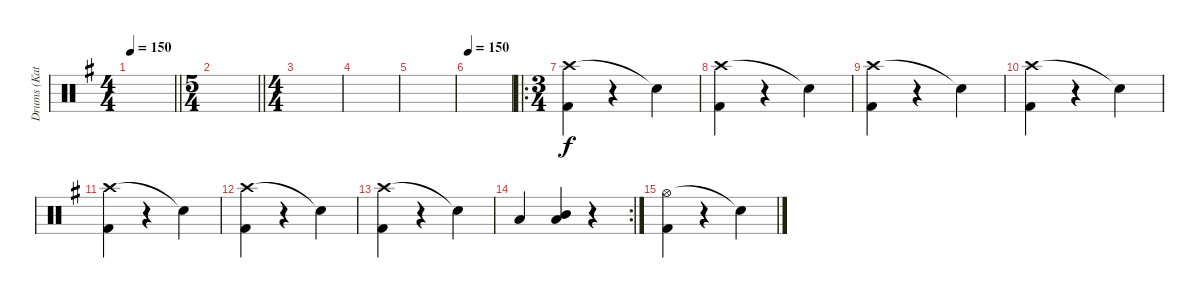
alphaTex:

\track ("Drums (Katsuji)" "Drums (Kat") {instrument percussion}
\staff {score}
\articulation defaults
\ts (4 4)
\tempo 150
\tempo 70
\tempo 150
\clef neutral
\barLineRight lightlight
\ks g
|
\ts (5 4)
\barLineRight lightlight
|
\ts (4 4)
|
|
|
\tempo 150
|
\ro
\ts (3 4)
("Crash high (hit)" "Kick (hit) 2").4 r.4 "Snare (hit)"{t}.4 |
("Crash high (hit)" "Kick (hit) 2").4 r.4 "Snare (hit)"{t}.4 |
("Crash high (hit)" "Kick (hit) 2").4 r.4 "Snare (hit)"{t}.4 |
("Crash high (hit)" "Kick (hit) 2").4 r.4 "Snare (hit)"{t}.4 |
("Crash high (hit)" "Kick (hit) 2").4 r.4 "Snare (hit)"{t}.4 |
("Crash high (hit)" "Kick (hit) 2").4 r.4 "Snare (hit)"{t}.4 |
("Crash high (hit)" "Kick (hit) 2").4 r.4 "Snare (hit)"{t}.4 |
\rc 2 "Low Tom (hit)".4
("Mid Tom (hit)" "Low Tom (hit)").4 r.4 |
("Hi-Hat (open)" "Kick (hit) 2").4 r.4 "Snare (hit)"{t}.4
